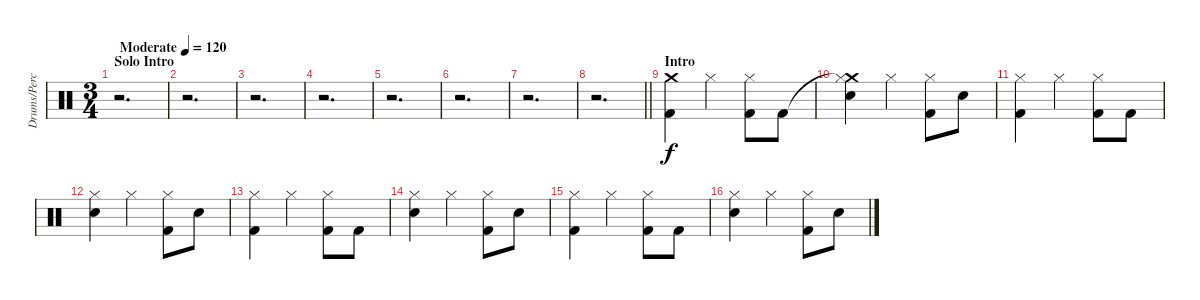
\track ("Drums/Percussion" "Drums/Perc") {instrument percussion}
\staff {score}
\articulation defaults
\ts (3 4)
\section ("" "Solo Intro")
\tempo (120 "Moderate")
\clef neutral
\ks c
r.2{d dy f} |
r.2{d} |
r.2{d} |
r.2{d} |
r.2{d} |
r.2{d} |
r.2{d} |
\barLineRight lightlight
r.2{d} |
\section ("" "Intro")
("Crash medium (hit)" "Kick (hit) 2").4 "Hi-Hat (closed)".4 ("Hi-Hat (closed)" "Kick (hit) 2").8 "Kick (hit) 2".8 |
("Crash medium (hit)"{t} "Hi-Hat (closed)" "Snare (hit) 2").4 "Hi-Hat (closed)".4 ("Hi-Hat (closed)" "Kick (hit) 2").8 "Snare (hit) 2".8 |
("Hi-Hat (closed)" "Kick (hit) 2").4 "Hi-Hat (closed)".4 ("Hi-Hat (closed)" "Kick (hit) 2").8 "Kick (hit) 2".8 |
("Hi-Hat (closed)" "Snare (hit) 2").4 "Hi-Hat (closed)".4 ("Hi-Hat (closed)" "Kick (hit) 2").8 "Snare (hit) 2".8 |
("Hi-Hat (closed)" "Kick (hit) 2").4 "Hi-Hat (closed)".4 ("Hi-Hat (closed)" "Kick (hit) 2").8 "Kick (hit) 2".8 |
("Hi-Hat (closed)" "Snare (hit) 2").4 "Hi-Hat (closed)".4 ("Hi-Hat (closed)" "Kick (hit) 2").8 "Snare (hit) 2".8 |
("Hi-Hat (closed)" "Kick (hit) 2").4 "Hi-Hat (closed)".4 ("Hi-Hat (closed)" "Kick (hit) 2").8 "Kick (hit) 2".8 |
("Hi-Hat (closed)" "Snare (hit) 2").4 "Hi-Hat (closed)".4 ("Hi-Hat (closed)" "Kick (hit) 2").8 "Snare (hit) 2".8
